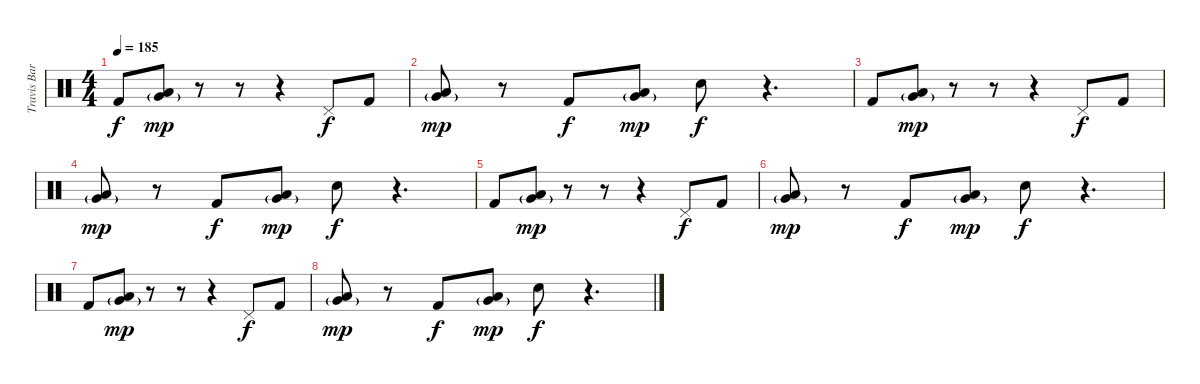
\track ("Travis Barker - Drums" "Travis Bar") {instrument percussion}
\staff {score}
\articulation defaults
\ts (4 4)
\tempo 185
\clef neutral
\ks c "Kick (hit) 2".8{dy f}
("Low Floor Tom (hit)" "Very Low Tom (hit)"{g}).8{dy mp} r.8 r.8 r.4 "Pedal Hi-Hat (hit)".8{dy f} "Kick (hit) 2".8 |
("Low Floor Tom (hit)" "Very Low Tom (hit)"{g}).8{dy mp} r.8 "Kick (hit) 2".8{dy f} ("Low Floor Tom (hit)" "Very Low Tom (hit)"{g}).8{dy mp} "Electric Snare (hit)".8{dy f} r.4{d} |
"Kick (hit) 2".8 ("Low Floor Tom (hit)" "Very Low Tom (hit)"{g}).8{dy mp} r.8 r.8 r.4 "Pedal Hi-Hat (hit)".8{dy f} "Kick (hit) 2".8 |
("Low Floor Tom (hit)" "Very Low Tom (hit)"{g}).8{dy mp} r.8 "Kick (hit) 2".8{dy f} ("Low Floor Tom (hit)" "Very Low Tom (hit)"{g}).8{dy mp} "Electric Snare (hit)".8{dy f} r.4{d} |
"Kick (hit) 2".8{volume 0} ("Low Floor Tom (hit)" "Very Low Tom (hit)"{g}).8{dy mp} r.8 r.8 r.4 "Pedal Hi-Hat (hit)".8{dy f} "Kick (hit) 2".8 |
("Low Floor Tom (hit)" "Very Low Tom (hit)"{g}).8{dy mp} r.8 "Kick (hit) 2".8{dy f} ("Low Floor Tom (hit)" "Very Low Tom (hit)"{g}).8{dy mp} "Electric Snare (hit)".8{dy f} r.4{d} |
"Kick (hit) 2".8 ("Low Floor Tom (hit)" "Very Low Tom (hit)"{g}).8{dy mp} r.8 r.8 r.4 "Pedal Hi-Hat (hit)".8{dy f} "Kick (hit) 2".8 |
("Low Floor Tom (hit)" "Very Low Tom (hit)"{g}).8{dy mp} r.8 "Kick (hit) 2".8{dy f} ("Low Floor Tom (hit)" "Very Low Tom (hit)"{g}).8{dy mp} "Electric Snare (hit)".8{dy f} r.4{d}
